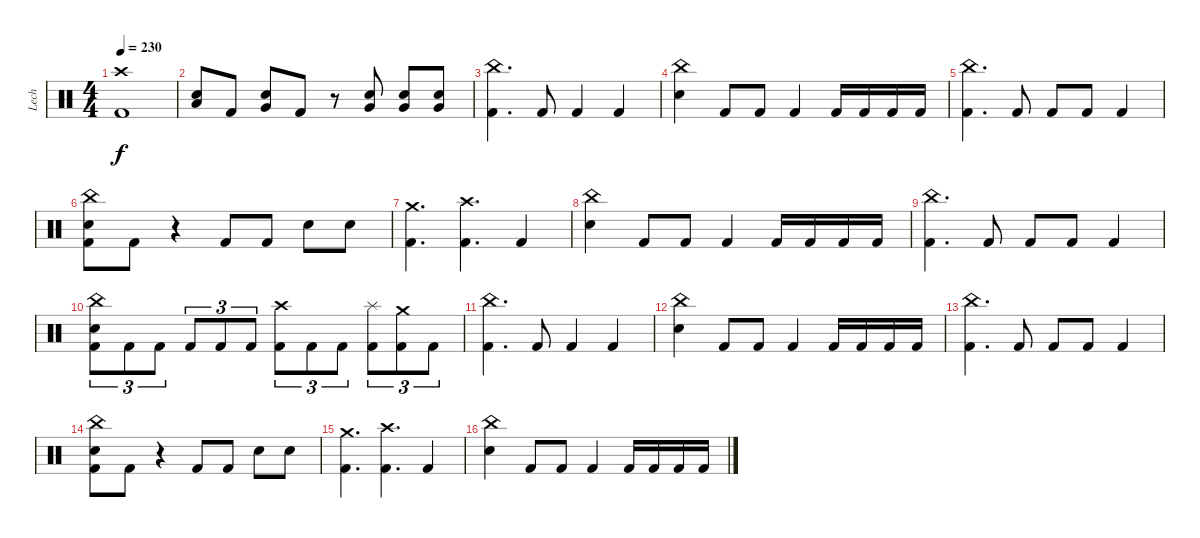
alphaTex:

\track ("Lech" "Lech") {instrument percussion}
\staff {score}
\articulation defaults
\ts (4 4)
\tempo 230
\clef neutral
\ks c
("Crash high (hit)" "Kick (hit) 2").1{dy f} |
("Low Tom (hit)" "Electric Snare (hit)").8 "Kick (hit) 2".8 ("Very Low Tom (hit)" "Electric Snare (hit)").8 "Kick (hit) 2".8 r.8 ("Very Low Tom (hit)" "Electric Snare (hit)").8 ("Very Low Tom (hit)" "Electric Snare (hit)").8 ("Very Low Tom (hit)" "Electric Snare (hit)").8 |
("China (hit)" "Kick (hit) 2").4{d} "Kick (hit) 2".8 "Kick (hit) 2".4 "Kick (hit) 2".4 |
("China (hit)" "Electric Snare (hit)").4 "Kick (hit) 2".8 "Kick (hit) 2".8 "Kick (hit) 2".4 "Kick (hit) 2".16 "Kick (hit) 2".16 "Kick (hit) 2".16 "Kick (hit) 2".16 |
("China (hit)" "Kick (hit) 2").4{d} "Kick (hit) 2".8 "Kick (hit) 2".8 "Kick (hit) 2".8 "Kick (hit) 2".4 |
("China (hit)" "Electric Snare (hit)" "Kick (hit) 2").8 "Kick (hit) 2".8 r.4 "Kick (hit) 2".8 "Kick (hit) 2".8 "Electric Snare (hit)".8 "Electric Snare (hit)".8 |
("Crash medium (hit)" "Kick (hit) 2").4{d} ("Crash high (hit)" "Kick (hit) 2").4{d} "Kick (hit) 2".4 |
("China (hit)" "Electric Snare (hit)").4 "Kick (hit) 2".8 "Kick (hit) 2".8 "Kick (hit) 2".4 "Kick (hit) 2".16 "Kick (hit) 2".16 "Kick (hit) 2".16 "Kick (hit) 2".16 |
("China (hit)" "Kick (hit) 2").4{d} "Kick (hit) 2".8 "Kick (hit) 2".8 "Kick (hit) 2".8 "Kick (hit) 2".4 |
("China (hit)" "Electric Snare (hit)" "Kick (hit) 2").8{tu (3 2)} "Kick (hit) 2".8{tu (3 2)} "Kick (hit) 2".8{tu (3 2)} "Kick (hit) 2".8{tu (3 2)} "Kick (hit) 2".8{tu (3 2)} "Kick (hit) 2".8{tu (3 2)} ("Crash high (hit)" "Kick (hit) 2").8{tu (3 2)} "Kick (hit) 2".8{tu (3 2)} "Kick (hit) 2".8{tu (3 2)} ("Splash (hit)" "Kick (hit) 2").8{tu (3 2)} ("Crash medium (hit)" "Kick (hit) 2").8{tu (3 2)} "Kick (hit) 2".8{tu (3 2)} |
("China (hit)" "Kick (hit) 2").4{d} "Kick (hit) 2".8 "Kick (hit) 2".4 "Kick (hit) 2".4 |
("China (hit)" "Electric Snare (hit)").4 "Kick (hit) 2".8 "Kick (hit) 2".8 "Kick (hit) 2".4 "Kick (hit) 2".16 "Kick (hit) 2".16 "Kick (hit) 2".16 "Kick (hit) 2".16 |
("China (hit)" "Kick (hit) 2").4{d} "Kick (hit) 2".8 "Kick (hit) 2".8 "Kick (hit) 2".8 "Kick (hit) 2".4 |
("China (hit)" "Electric Snare (hit)" "Kick (hit) 2").8 "Kick (hit) 2".8 r.4 "Kick (hit) 2".8 "Kick (hit) 2".8 "Electric Snare (hit)".8 "Electric Snare (hit)".8 |
("Crash medium (hit)" "Kick (hit) 2").4{d} ("Crash high (hit)" "Kick (hit) 2").4{d} "Kick (hit) 2".4 |
("China (hit)" "Electric Snare (hit)").4 "Kick (hit) 2".8 "Kick (hit) 2".8 "Kick (hit) 2".4 "Kick (hit) 2".16 "Kick (hit) 2".16 "Kick (hit) 2".16 "Kick (hit) 2".16
